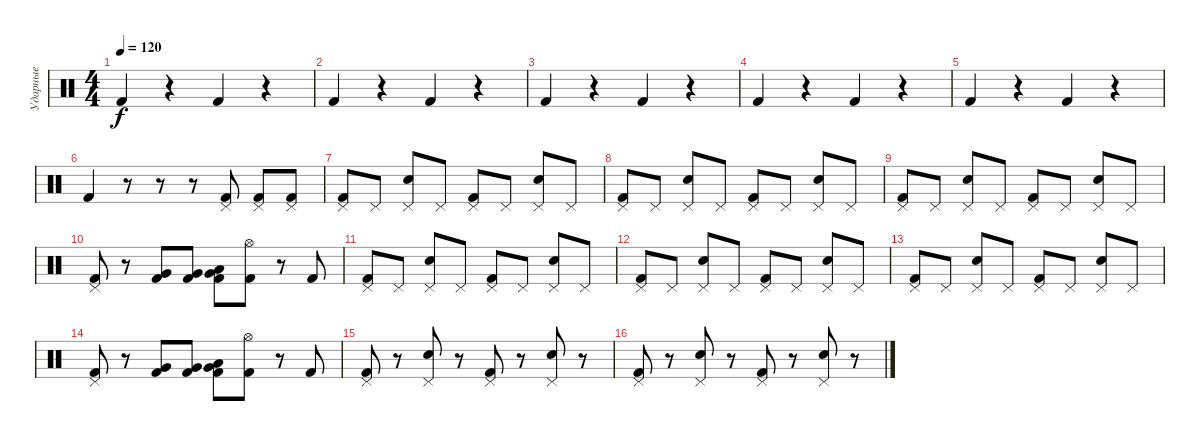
\track ("Ударные" "Ударные") {instrument percussion}
\staff {score}
\articulation defaults
\ts (4 4)
\tempo 120
\clef neutral
\ks c "Kick (hit) 2".4{dy f}
r.4 "Kick (hit) 2".4 r.4 |
"Kick (hit) 2".4 r.4 "Kick (hit) 2".4 r.4 |
"Kick (hit) 2".4 r.4 "Kick (hit) 2".4 r.4 |
"Kick (hit) 2".4 r.4 "Kick (hit) 2".4 r.4 |
"Kick (hit) 2".4 r.4 "Kick (hit) 2".4 r.4 |
"Kick (hit) 2".4 r.8 r.8 r.8 ("Pedal Hi-Hat (hit)" "Kick (hit) 2").8 ("Pedal Hi-Hat (hit)" "Kick (hit) 2").8 ("Pedal Hi-Hat (hit)" "Kick (hit) 2").8 |
("Pedal Hi-Hat (hit)" "Kick (hit) 2").8 "Pedal Hi-Hat (hit)".8 ("Pedal Hi-Hat (hit)" "Snare (hit) 2").8 "Pedal Hi-Hat (hit)".8 ("Pedal Hi-Hat (hit)" "Kick (hit) 2").8 "Pedal Hi-Hat (hit)".8 ("Pedal Hi-Hat (hit)" "Snare (hit) 2").8 "Pedal Hi-Hat (hit)".8 |
("Pedal Hi-Hat (hit)" "Kick (hit) 2").8 "Pedal Hi-Hat (hit)".8 ("Pedal Hi-Hat (hit)" "Snare (hit) 2").8 "Pedal Hi-Hat (hit)".8 ("Pedal Hi-Hat (hit)" "Kick (hit) 2").8 "Pedal Hi-Hat (hit)".8 ("Pedal Hi-Hat (hit)" "Snare (hit) 2").8 "Pedal Hi-Hat (hit)".8 |
("Pedal Hi-Hat (hit)" "Kick (hit) 2").8 "Pedal Hi-Hat (hit)".8 ("Pedal Hi-Hat (hit)" "Snare (hit) 2").8 "Pedal Hi-Hat (hit)".8 ("Pedal Hi-Hat (hit)" "Kick (hit) 2").8 "Pedal Hi-Hat (hit)".8 ("Pedal Hi-Hat (hit)" "Snare (hit) 2").8 "Pedal Hi-Hat (hit)".8 |
("Pedal Hi-Hat (hit)" "Kick (hit) 2").8 r.8 ("Very Low Tom (hit)" "Kick (hit) 2").8 ("Very Low Tom (hit)" "Kick (hit) 2").8 ("Very Low Tom (hit)" "Low Tom (hit)" "Kick (hit) 2").8 ("Hi-Hat (open)" "Kick (hit) 2").8 r.8 "Kick (hit) 2".8 |
("Pedal Hi-Hat (hit)" "Kick (hit) 2").8 "Pedal Hi-Hat (hit)".8 ("Pedal Hi-Hat (hit)" "Snare (hit) 2").8 "Pedal Hi-Hat (hit)".8 ("Pedal Hi-Hat (hit)" "Kick (hit) 2").8 "Pedal Hi-Hat (hit)".8 ("Pedal Hi-Hat (hit)" "Snare (hit) 2").8 "Pedal Hi-Hat (hit)".8 |
("Pedal Hi-Hat (hit)" "Kick (hit) 2").8 "Pedal Hi-Hat (hit)".8 ("Pedal Hi-Hat (hit)" "Snare (hit) 2").8 "Pedal Hi-Hat (hit)".8 ("Pedal Hi-Hat (hit)" "Kick (hit) 2").8 "Pedal Hi-Hat (hit)".8 ("Pedal Hi-Hat (hit)" "Snare (hit) 2").8 "Pedal Hi-Hat (hit)".8 |
("Pedal Hi-Hat (hit)" "Kick (hit) 2").8 "Pedal Hi-Hat (hit)".8 ("Pedal Hi-Hat (hit)" "Snare (hit) 2").8 "Pedal Hi-Hat (hit)".8 ("Pedal Hi-Hat (hit)" "Kick (hit) 2").8 "Pedal Hi-Hat (hit)".8 ("Pedal Hi-Hat (hit)" "Snare (hit) 2").8 "Pedal Hi-Hat (hit)".8 |
("Pedal Hi-Hat (hit)" "Kick (hit) 2").8 r.8 ("Very Low Tom (hit)" "Kick (hit) 2").8 ("Very Low Tom (hit)" "Kick (hit) 2").8 ("Very Low Tom (hit)" "Low Tom (hit)" "Kick (hit) 2").8 ("Hi-Hat (open)" "Kick (hit) 2").8 r.8 "Kick (hit) 2".8 |
("Pedal Hi-Hat (hit)" "Kick (hit) 2").8 r.8 ("Pedal Hi-Hat (hit)" "Snare (hit) 2").8 r.8 ("Pedal Hi-Hat (hit)" "Kick (hit) 2").8 r.8 ("Pedal Hi-Hat (hit)" "Snare (hit) 2").8 r.8 |
("Pedal Hi-Hat (hit)" "Kick (hit) 2").8 r.8 ("Pedal Hi-Hat (hit)" "Snare (hit) 2").8 r.8 ("Pedal Hi-Hat (hit)" "Kick (hit) 2").8 r.8 ("Pedal Hi-Hat (hit)" "Snare (hit) 2").8 r.8
